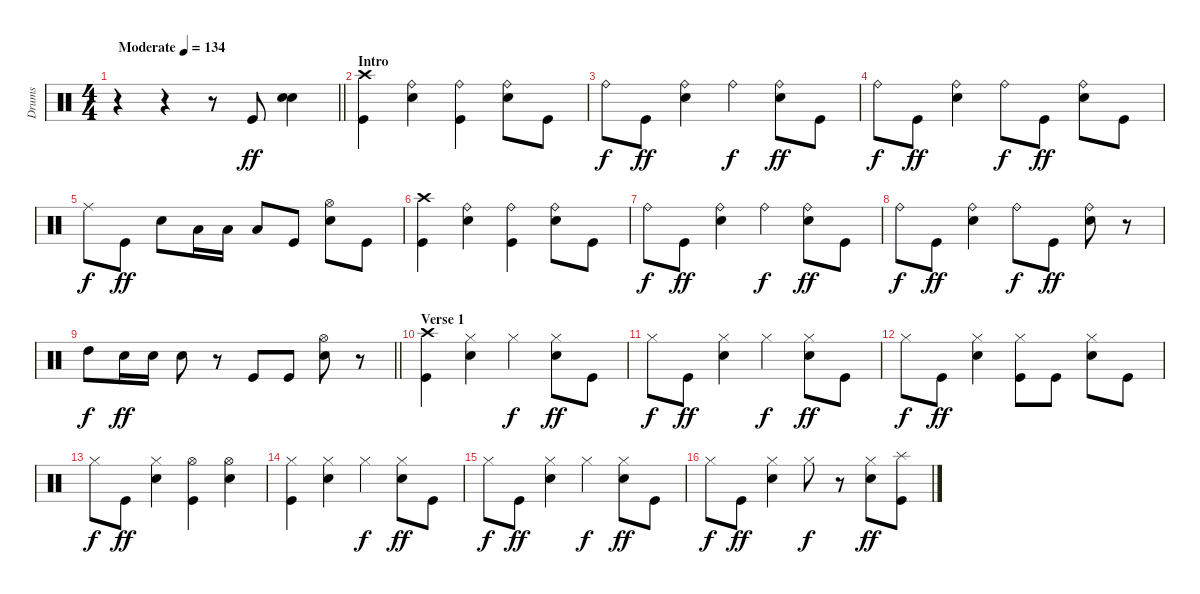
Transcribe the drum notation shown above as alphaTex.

\track ("Drums" "Drums") {instrument percussion}
\staff {score}
\articulation defaults
\ts (4 4)
\tempo (134 "Moderate")
\clef neutral
\barLineRight lightlight
\ks c
r.4{dy ff} r.4 r.8 "Kick (hit)".8 ("Snare (hit) 2" "Electric Snare (hit)").4 |
\section ("" "Intro")
("Crash high (hit)" "Kick (hit)").4 ("Ride (bell)" "Electric Snare (hit)").4 ("Ride (bell)" "Kick (hit)").4 ("Ride (bell)" "Electric Snare (hit)").8 "Kick (hit)".8 |
"Ride (bell)".8{dy f} "Kick (hit)".8{dy ff} ("Ride (bell)" "Electric Snare (hit)").4 "Ride (bell)".4{dy f} ("Ride (bell)" "Electric Snare (hit)").8{dy ff} "Kick (hit)".8 |
"Ride (bell)".8{dy f} "Kick (hit)".8{dy ff} ("Ride (bell)" "Electric Snare (hit)").4 "Ride (bell)".8{dy f} "Kick (hit)".8{dy ff} ("Ride (bell)" "Electric Snare (hit)").8 "Kick (hit)".8 |
"Ride (middle)".8{dy f} "Kick (hit)".8{dy ff} "Electric Snare (hit)".8 "Low Floor Tom (hit)".16 "Low Floor Tom (hit)".16 "Low Floor Tom (hit)".8 "Kick (hit)".8 ("Hi-Hat (open)" "Electric Snare (hit)").8 "Kick (hit)".8 |
("Crash high (hit)" "Kick (hit)").4 ("Ride (bell)" "Electric Snare (hit)").4 ("Ride (bell)" "Kick (hit)").4 ("Ride (bell)" "Electric Snare (hit)").8 "Kick (hit)".8 |
"Ride (bell)".8{dy f} "Kick (hit)".8{dy ff} ("Ride (bell)" "Electric Snare (hit)").4 "Ride (bell)".4{dy f} ("Ride (bell)" "Electric Snare (hit)").8{dy ff} "Kick (hit)".8 |
"Ride (bell)".8{dy f} "Kick (hit)".8{dy ff} ("Ride (bell)" "Electric Snare (hit)").4 "Ride (bell)".8{dy f} "Kick (hit)".8{dy ff} ("Ride (bell)" "Electric Snare (hit)").8 r.8 |
\barLineRight lightlight "High Tom (hit)".8{dy f} "Electric Snare (hit)".16{dy ff} "Electric Snare (hit)".16 "Electric Snare (hit)".8
r.8 "Kick (hit)".8 "Kick (hit)".8 ("Hi-Hat (open)" "Electric Snare (hit)").8 r.8 |
\section ("" "Verse 1")
("Crash high (hit)" "Kick (hit)").4 ("Hi-Hat (closed)" "Electric Snare (hit)").4 "Hi-Hat (closed)".4{dy f} ("Hi-Hat (closed)" "Electric Snare (hit)").8{dy ff} "Kick (hit)".8 |
"Hi-Hat (closed)".8{dy f} "Kick (hit)".8{dy ff} ("Hi-Hat (closed)" "Electric Snare (hit)").4 "Hi-Hat (closed)".4{dy f} ("Hi-Hat (closed)" "Electric Snare (hit)").8{dy ff} "Kick (hit)".8 |
"Hi-Hat (closed)".8{dy f} "Kick (hit)".8{dy ff} ("Hi-Hat (closed)" "Electric Snare (hit)").4 ("Hi-Hat (closed)" "Kick (hit)").8 "Kick (hit)".8 ("Hi-Hat (closed)" "Electric Snare (hit)").8 "Kick (hit)".8 |
"Hi-Hat (closed)".8{dy f} "Kick (hit)".8{dy ff} ("Hi-Hat (closed)" "Electric Snare (hit)").4 ("Hi-Hat (open)" "Kick (hit)").4 ("Hi-Hat (open)" "Electric Snare (hit)").4 |
("Hi-Hat (closed)" "Kick (hit)").4 ("Hi-Hat (closed)" "Electric Snare (hit)").4 "Hi-Hat (closed)".4{dy f} ("Hi-Hat (closed)" "Electric Snare (hit)").8{dy ff} "Kick (hit)".8 |
"Hi-Hat (closed)".8{dy f} "Kick (hit)".8{dy ff} ("Hi-Hat (closed)" "Electric Snare (hit)").4 "Hi-Hat (closed)".4{dy f} ("Hi-Hat (closed)" "Electric Snare (hit)").8{dy ff} "Kick (hit)".8 |
"Hi-Hat (closed)".8{dy f} "Kick (hit)".8{dy ff} ("Hi-Hat (closed)" "Electric Snare (hit)").4 "Hi-Hat (closed)".8{dy f} r.8 ("Hi-Hat (closed)" "Electric Snare (hit)").8{dy ff} ("Splash (hit)" "Kick (hit)").8
